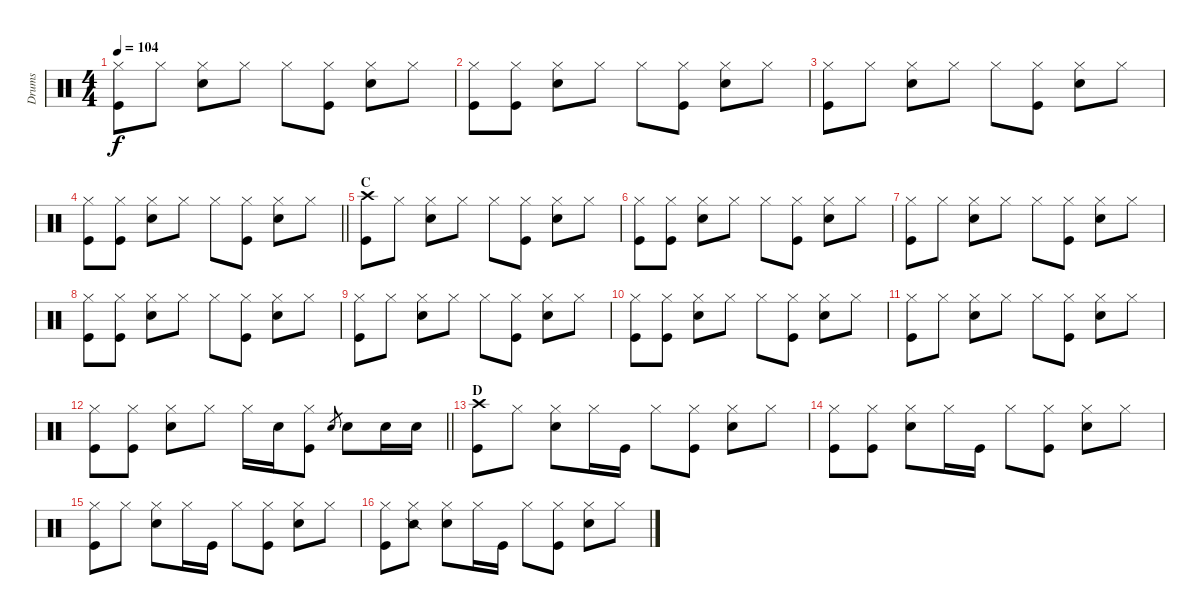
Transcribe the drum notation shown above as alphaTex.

\track ("Drums" "Drums") {instrument percussion}
\staff {score}
\articulation defaults
\ts (4 4)
\tempo 104
\clef neutral
\ks c
("Hi-Hat (closed)" "Kick (hit)").8{dy f} "Hi-Hat (closed)".8 ("Hi-Hat (closed)" "Electric Snare (hit)").8 "Hi-Hat (closed)".8 "Hi-Hat (closed)".8 ("Hi-Hat (closed)" "Kick (hit)").8 ("Hi-Hat (closed)" "Electric Snare (hit)").8 "Hi-Hat (closed)".8 |
("Hi-Hat (closed)" "Kick (hit)").8 ("Hi-Hat (closed)" "Kick (hit)").8 ("Hi-Hat (closed)" "Electric Snare (hit)").8 "Hi-Hat (closed)".8 "Hi-Hat (closed)".8 ("Hi-Hat (closed)" "Kick (hit)").8 ("Hi-Hat (closed)" "Electric Snare (hit)").8 "Hi-Hat (closed)".8 |
("Hi-Hat (closed)" "Kick (hit)").8 "Hi-Hat (closed)".8 ("Hi-Hat (closed)" "Electric Snare (hit)").8 "Hi-Hat (closed)".8 "Hi-Hat (closed)".8 ("Hi-Hat (closed)" "Kick (hit)").8 ("Hi-Hat (closed)" "Electric Snare (hit)").8 "Hi-Hat (closed)".8 |
\barLineRight lightlight
("Hi-Hat (closed)" "Kick (hit)").8 ("Hi-Hat (closed)" "Kick (hit)").8 ("Hi-Hat (closed)" "Electric Snare (hit)").8 "Hi-Hat (closed)".8 "Hi-Hat (closed)".8 ("Hi-Hat (closed)" "Kick (hit)").8 ("Hi-Hat (closed)" "Electric Snare (hit)").8 "Hi-Hat (closed)".8 |
\section ("" "C")
("Crash high (hit)" "Kick (hit)").8 "Hi-Hat (closed)".8 ("Hi-Hat (closed)" "Electric Snare (hit)").8 "Hi-Hat (closed)".8 "Hi-Hat (closed)".8 ("Hi-Hat (closed)" "Kick (hit)").8 ("Hi-Hat (closed)" "Electric Snare (hit)").8 "Hi-Hat (closed)".8 |
("Hi-Hat (closed)" "Kick (hit)").8 ("Hi-Hat (closed)" "Kick (hit)").8 ("Hi-Hat (closed)" "Electric Snare (hit)").8 "Hi-Hat (closed)".8 "Hi-Hat (closed)".8 ("Hi-Hat (closed)" "Kick (hit)").8 ("Hi-Hat (closed)" "Electric Snare (hit)").8 "Hi-Hat (closed)".8 |
("Hi-Hat (closed)" "Kick (hit)").8 "Hi-Hat (closed)".8 ("Hi-Hat (closed)" "Electric Snare (hit)").8 "Hi-Hat (closed)".8 "Hi-Hat (closed)".8 ("Hi-Hat (closed)" "Kick (hit)").8 ("Hi-Hat (closed)" "Electric Snare (hit)").8 "Hi-Hat (closed)".8 |
("Hi-Hat (closed)" "Kick (hit)").8 ("Hi-Hat (closed)" "Kick (hit)").8 ("Hi-Hat (closed)" "Electric Snare (hit)").8 "Hi-Hat (closed)".8 "Hi-Hat (closed)".8 ("Hi-Hat (closed)" "Kick (hit)").8 ("Hi-Hat (closed)" "Electric Snare (hit)").8 "Hi-Hat (closed)".8 |
("Hi-Hat (closed)" "Kick (hit)").8 "Hi-Hat (closed)".8 ("Hi-Hat (closed)" "Electric Snare (hit)").8 "Hi-Hat (closed)".8 "Hi-Hat (closed)".8 ("Hi-Hat (closed)" "Kick (hit)").8 ("Hi-Hat (closed)" "Electric Snare (hit)").8 "Hi-Hat (closed)".8 |
("Hi-Hat (closed)" "Kick (hit)").8 ("Hi-Hat (closed)" "Kick (hit)").8 ("Hi-Hat (closed)" "Electric Snare (hit)").8 "Hi-Hat (closed)".8 "Hi-Hat (closed)".8 ("Hi-Hat (closed)" "Kick (hit)").8 ("Hi-Hat (closed)" "Electric Snare (hit)").8 "Hi-Hat (closed)".8 |
("Hi-Hat (closed)" "Kick (hit)").8 "Hi-Hat (closed)".8 ("Hi-Hat (closed)" "Electric Snare (hit)").8 "Hi-Hat (closed)".8 "Hi-Hat (closed)".8 ("Hi-Hat (closed)" "Kick (hit)").8 ("Hi-Hat (closed)" "Electric Snare (hit)").8 "Hi-Hat (closed)".8 |
\barLineRight lightlight
("Hi-Hat (closed)" "Kick (hit)").8 ("Hi-Hat (closed)" "Kick (hit)").8 ("Hi-Hat (closed)" "Electric Snare (hit)").8 "Hi-Hat (closed)".8 "Hi-Hat (closed)".16 "Electric Snare (hit)".16 ("Hi-Hat (closed)" "Kick (hit)").8 "Electric Snare (hit)".8{gr} "Electric Snare (hit)".8 "Electric Snare (hit)".16 "Electric Snare (hit)".16 |
\section ("" "D")
("Crash high (hit)" "Kick (hit)").8 "Hi-Hat (closed)".8 ("Hi-Hat (closed)" "Electric Snare (hit)").8 "Hi-Hat (closed)".16 "Kick (hit)".16 "Hi-Hat (closed)".8 ("Hi-Hat (closed)" "Kick (hit)").8 ("Hi-Hat (closed)" "Electric Snare (hit)").8 "Hi-Hat (closed)".8 |
("Hi-Hat (closed)" "Kick (hit)").8 ("Hi-Hat (closed)" "Kick (hit)").8 ("Hi-Hat (closed)" "Electric Snare (hit)").8 "Hi-Hat (closed)".16 "Kick (hit)".16 "Hi-Hat (closed)".8 ("Hi-Hat (closed)" "Kick (hit)").8 ("Hi-Hat (closed)" "Electric Snare (hit)").8 "Hi-Hat (closed)".8 |
("Hi-Hat (closed)" "Kick (hit)").8 "Hi-Hat (closed)".8 ("Hi-Hat (closed)" "Electric Snare (hit)").8 "Hi-Hat (closed)".16 "Kick (hit)".16 "Hi-Hat (closed)".8 ("Hi-Hat (closed)" "Kick (hit)").8 ("Hi-Hat (closed)" "Electric Snare (hit)").8 "Hi-Hat (closed)".8 |
("Hi-Hat (closed)" "Kick (hit)").8 ("Hi-Hat (closed)" "Snare (side stick) 2").8 ("Hi-Hat (closed)" "Electric Snare (hit)").8 "Hi-Hat (closed)".16 "Kick (hit)".16 "Hi-Hat (closed)".8 ("Hi-Hat (closed)" "Kick (hit)").8 ("Hi-Hat (closed)" "Electric Snare (hit)").8 "Hi-Hat (closed)".8
